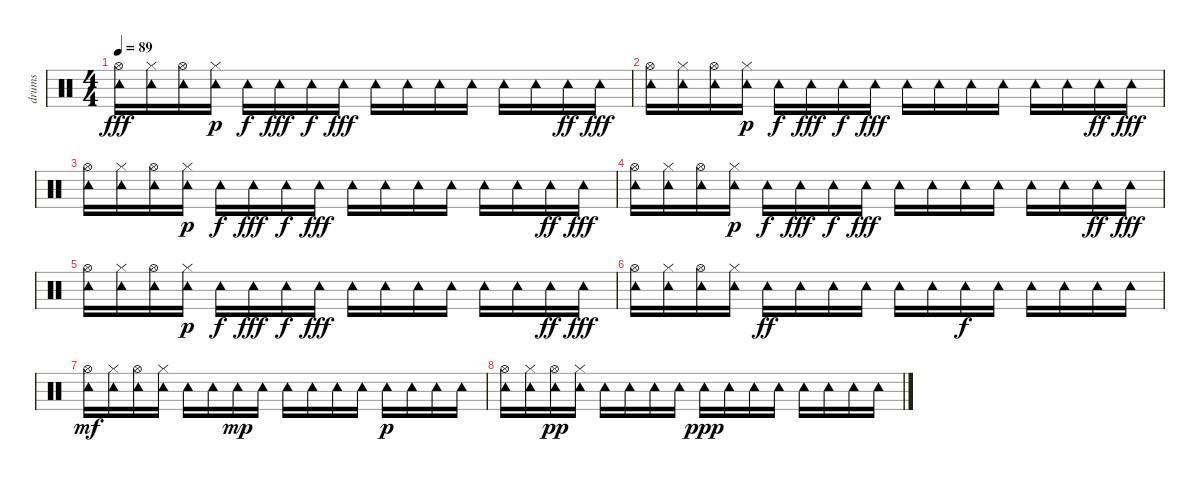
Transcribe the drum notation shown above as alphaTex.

\track ("drums" "drums") {instrument percussion}
\staff {score}
\articulation defaults
\ts (4 4)
\tempo 89
\clef neutral
\ks c
("Hi-Hat (open)" "Tambourine (hit)").16{dy fff} ("Hi-Hat (closed)" "Tambourine (hit)").16 ("Hi-Hat (open)" "Tambourine (hit)").16 ("Hi-Hat (closed)" "Tambourine (hit)").16{dy p} "Tambourine (hit)".16{dy f} "Tambourine (hit)".16{dy fff} "Tambourine (hit)".16{dy f} "Tambourine (hit)".16{dy fff} "Tambourine (hit)".16 "Tambourine (hit)".16 "Tambourine (hit)".16 "Tambourine (hit)".16 "Tambourine (hit)".16 "Tambourine (hit)".16 "Tambourine (hit)".16{dy ff} "Tambourine (hit)".16{dy fff} |
("Hi-Hat (open)" "Tambourine (hit)").16 ("Hi-Hat (closed)" "Tambourine (hit)").16 ("Hi-Hat (open)" "Tambourine (hit)").16 ("Hi-Hat (closed)" "Tambourine (hit)").16{dy p} "Tambourine (hit)".16{dy f} "Tambourine (hit)".16{dy fff} "Tambourine (hit)".16{dy f} "Tambourine (hit)".16{dy fff} "Tambourine (hit)".16 "Tambourine (hit)".16 "Tambourine (hit)".16 "Tambourine (hit)".16 "Tambourine (hit)".16 "Tambourine (hit)".16 "Tambourine (hit)".16{dy ff} "Tambourine (hit)".16{dy fff} |
("Hi-Hat (open)" "Tambourine (hit)").16 ("Hi-Hat (closed)" "Tambourine (hit)").16 ("Hi-Hat (open)" "Tambourine (hit)").16 ("Hi-Hat (closed)" "Tambourine (hit)").16{dy p} "Tambourine (hit)".16{dy f} "Tambourine (hit)".16{dy fff} "Tambourine (hit)".16{dy f} "Tambourine (hit)".16{dy fff} "Tambourine (hit)".16 "Tambourine (hit)".16 "Tambourine (hit)".16 "Tambourine (hit)".16 "Tambourine (hit)".16 "Tambourine (hit)".16 "Tambourine (hit)".16{dy ff} "Tambourine (hit)".16{dy fff} |
("Hi-Hat (open)" "Tambourine (hit)").16 ("Hi-Hat (closed)" "Tambourine (hit)").16 ("Hi-Hat (open)" "Tambourine (hit)").16 ("Hi-Hat (closed)" "Tambourine (hit)").16{dy p} "Tambourine (hit)".16{dy f} "Tambourine (hit)".16{dy fff} "Tambourine (hit)".16{dy f} "Tambourine (hit)".16{dy fff} "Tambourine (hit)".16 "Tambourine (hit)".16 "Tambourine (hit)".16 "Tambourine (hit)".16 "Tambourine (hit)".16 "Tambourine (hit)".16 "Tambourine (hit)".16{dy ff} "Tambourine (hit)".16{dy fff} |
("Hi-Hat (open)" "Tambourine (hit)").16 ("Hi-Hat (closed)" "Tambourine (hit)").16 ("Hi-Hat (open)" "Tambourine (hit)").16 ("Hi-Hat (closed)" "Tambourine (hit)").16{dy p} "Tambourine (hit)".16{dy f} "Tambourine (hit)".16{dy fff} "Tambourine (hit)".16{dy f} "Tambourine (hit)".16{dy fff} "Tambourine (hit)".16 "Tambourine (hit)".16 "Tambourine (hit)".16 "Tambourine (hit)".16 "Tambourine (hit)".16 "Tambourine (hit)".16 "Tambourine (hit)".16{dy ff} "Tambourine (hit)".16{dy fff} |
("Hi-Hat (open)" "Tambourine (hit)").16 ("Hi-Hat (closed)" "Tambourine (hit)").16 ("Hi-Hat (open)" "Tambourine (hit)").16 ("Hi-Hat (closed)" "Tambourine (hit)").16 "Tambourine (hit)".16{dy ff} "Tambourine (hit)".16 "Tambourine (hit)".16 "Tambourine (hit)".16 "Tambourine (hit)".16 "Tambourine (hit)".16 "Tambourine (hit)".16{dy f} "Tambourine (hit)".16 "Tambourine (hit)".16 "Tambourine (hit)".16 "Tambourine (hit)".16 "Tambourine (hit)".16 |
("Hi-Hat (open)" "Tambourine (hit)").16{dy mf} ("Hi-Hat (closed)" "Tambourine (hit)").16 ("Hi-Hat (open)" "Tambourine (hit)").16 ("Hi-Hat (closed)" "Tambourine (hit)").16 "Tambourine (hit)".16 "Tambourine (hit)".16 "Tambourine (hit)".16{dy mp} "Tambourine (hit)".16 "Tambourine (hit)".16 "Tambourine (hit)".16 "Tambourine (hit)".16 "Tambourine (hit)".16 "Tambourine (hit)".16{dy p} "Tambourine (hit)".16 "Tambourine (hit)".16 "Tambourine (hit)".16 |
("Hi-Hat (open)" "Tambourine (hit)").16 ("Hi-Hat (closed)" "Tambourine (hit)").16 ("Hi-Hat (open)" "Tambourine (hit)").16{dy pp} ("Hi-Hat (closed)" "Tambourine (hit)").16 "Tambourine (hit)".16 "Tambourine (hit)".16 "Tambourine (hit)".16 "Tambourine (hit)".16 "Tambourine (hit)".16{dy ppp} "Tambourine (hit)".16 "Tambourine (hit)".16 "Tambourine (hit)".16 "Tambourine (hit)".16 "Tambourine (hit)".16 "Tambourine (hit)".16 "Tambourine (hit)".16
